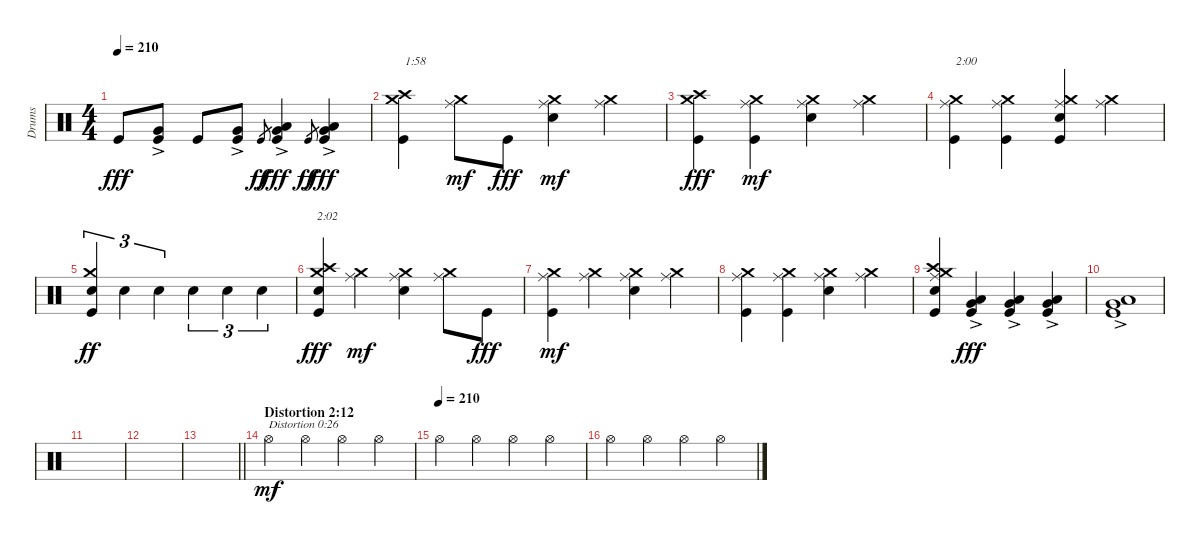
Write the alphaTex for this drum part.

\track ("Drums" "Drums") {instrument percussion}
\staff {score}
\articulation defaults
\ts (4 4)
\tempo 210
\clef neutral
\ks c "Kick (hit)".8{dy fff}
("Kick (hit)" "Very Low Tom (hit)"{ac}).8 "Kick (hit)".8 ("Kick (hit)" "Very Low Tom (hit)"{ac}).8 "Kick (hit)".8{gr dy ff} ("Kick (hit)" "Very Low Tom (hit)"{ac} "Low Tom (hit)"{ac}).4{dy fff} "Kick (hit)".8{gr dy ff} ("Kick (hit)" "Very Low Tom (hit)"{ac} "Low Tom (hit)"{ac}).4{dy fff} |
("Kick (hit)" "Crash medium (hit)" "Crash high (hit)").4{txt "1:58"} ("Ride (middle)" "Crash medium (hit)").8{dy mf} "Kick (hit)".8{dy fff} ("Electric Snare (hit)" "Ride (middle)" "Crash medium (hit)").4{dy mf} ("Ride (middle)" "Crash medium (hit)").4 |
("Kick (hit)" "Crash medium (hit)" "Crash high (hit)").4{dy fff} ("Kick (hit)" "Ride (middle)" "Crash medium (hit)").4{dy mf} ("Electric Snare (hit)" "Ride (middle)" "Crash medium (hit)").4 ("Ride (middle)" "Crash medium (hit)").4 |
("Kick (hit)" "Ride (middle)" "Crash medium (hit)").4{txt "2:00"} ("Kick (hit)" "Ride (middle)" "Crash medium (hit)").4 ("Kick (hit)" "Electric Snare (hit)" "Ride (middle)" "Crash medium (hit)").4 ("Ride (middle)" "Crash medium (hit)").4 |
("Kick (hit)" "Electric Snare (hit)" "Crash medium (hit)").4{tu (3 2) dy ff} "Electric Snare (hit)".4{tu (3 2)} "Electric Snare (hit)".4{tu (3 2)} "Electric Snare (hit)".4{tu (3 2)} "Electric Snare (hit)".4{tu (3 2)} "Electric Snare (hit)".4{tu (3 2)} |
("Kick (hit)" "Electric Snare (hit)" "Crash medium (hit)" "Crash high (hit)").4{txt "2:02" dy fff} ("Ride (middle)" "Crash medium (hit)").4{dy mf} ("Electric Snare (hit)" "Ride (middle)" "Crash medium (hit)").4 ("Ride (middle)" "Crash medium (hit)").8 "Kick (hit)".8{dy fff} |
("Kick (hit)" "Ride (middle)" "Crash medium (hit)").4{dy mf} ("Ride (middle)" "Crash medium (hit)").4 ("Electric Snare (hit)" "Ride (middle)" "Crash medium (hit)").4 ("Ride (middle)" "Crash medium (hit)").4 |
("Kick (hit)" "Ride (middle)" "Crash medium (hit)").4 ("Kick (hit)" "Ride (middle)" "Crash medium (hit)").4 ("Electric Snare (hit)" "Ride (middle)" "Crash medium (hit)").4 ("Ride (middle)" "Crash medium (hit)").4 |
("Kick (hit)" "Electric Snare (hit)" "Ride (middle)" "Crash medium (hit)" "Crash high (hit)").4 ("Kick (hit)" "Very Low Tom (hit)"{ac} "Low Floor Tom (hit)"{ac}).4{dy fff} ("Kick (hit)" "Very Low Tom (hit)"{ac} "Low Tom (hit)"{ac}).4 ("Kick (hit)" "Very Low Tom (hit)"{ac} "Low Tom (hit)"{ac}).4 |
("Kick (hit)" "Very Low Tom (hit)"{ac} "Low Tom (hit)"{ac}).1 |
|
|
\barLineRight lightlight
|
\section ("" "Distortion 2:12")
"Hi-Hat (open)".4{txt "Distortion 0:26" dy mf} "Hi-Hat (open)".4 "Hi-Hat (open)".4 "Hi-Hat (open)".4 |
\tempo (210)
"Hi-Hat (open)".4 "Hi-Hat (open)".4 "Hi-Hat (open)".4 "Hi-Hat (open)".4 |
"Hi-Hat (open)".4 "Hi-Hat (open)".4 "Hi-Hat (open)".4 "Hi-Hat (open)".4
